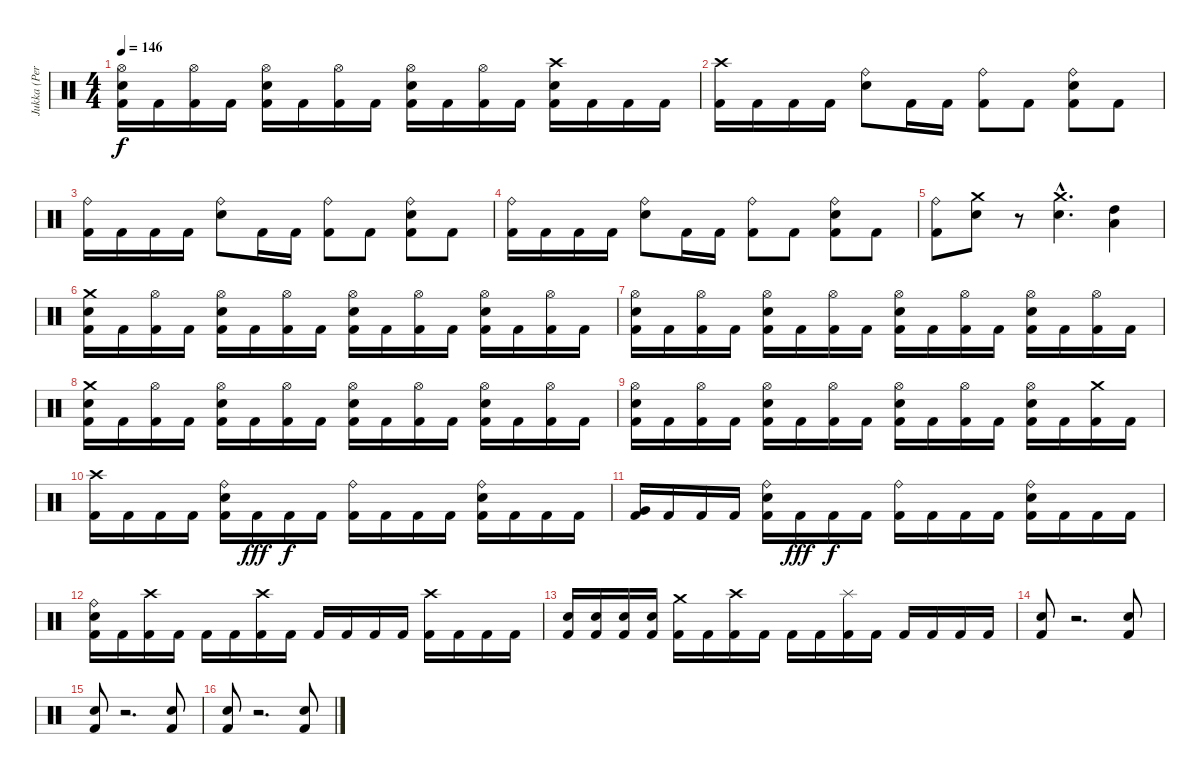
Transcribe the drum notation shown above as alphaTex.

\track ("Jukka (Percussion)" "Jukka (Per") {instrument percussion}
\staff {score}
\articulation defaults
\ts (4 4)
\tempo 146
\clef neutral
\ks c
("Hi-Hat (open)" "Snare (hit) 2" "Kick (hit) 2").16{dy f} "Kick (hit) 2".16 ("Hi-Hat (open)" "Kick (hit) 2").16 "Kick (hit) 2".16 ("Hi-Hat (open)" "Snare (hit) 2" "Kick (hit) 2").16 "Kick (hit) 2".16 ("Hi-Hat (open)" "Kick (hit) 2").16 "Kick (hit) 2".16 ("Hi-Hat (open)" "Snare (hit) 2" "Kick (hit) 2").16 "Kick (hit) 2".16 ("Hi-Hat (open)" "Kick (hit) 2").16 "Kick (hit) 2".16 ("Crash high (hit)" "Snare (hit) 2" "Kick (hit) 2").16 "Kick (hit) 2".16 "Kick (hit) 2".16 "Kick (hit) 2".16 |
("Crash high (hit)" "Kick (hit) 2").16 "Kick (hit) 2".16 "Kick (hit) 2".16 "Kick (hit) 2".16 ("Ride (bell)" "Snare (hit) 2").8 "Kick (hit) 2".16 "Kick (hit) 2".16 ("Ride (bell)" "Kick (hit) 2").8 "Kick (hit) 2".8 ("Ride (bell)" "Snare (hit) 2" "Kick (hit) 2").8 "Kick (hit) 2".8 |
("Ride (bell)" "Kick (hit) 2").16 "Kick (hit) 2".16 "Kick (hit) 2".16 "Kick (hit) 2".16 ("Ride (bell)" "Snare (hit) 2").8 "Kick (hit) 2".16 "Kick (hit) 2".16 ("Ride (bell)" "Kick (hit) 2").8 "Kick (hit) 2".8 ("Ride (bell)" "Snare (hit) 2" "Kick (hit) 2").8 "Kick (hit) 2".8 |
("Ride (bell)" "Kick (hit) 2").16 "Kick (hit) 2".16 "Kick (hit) 2".16 "Kick (hit) 2".16 ("Ride (bell)" "Snare (hit) 2").8 "Kick (hit) 2".16 "Kick (hit) 2".16 ("Ride (bell)" "Kick (hit) 2").8 "Kick (hit) 2".8 ("Ride (bell)" "Snare (hit) 2" "Kick (hit) 2").8 "Kick (hit) 2".8 |
("Ride (bell)" "Kick (hit) 2").8 ("Crash medium (hit)" "Snare (hit) 2").8 r.8 ("Crash medium (hit)"{hac} "Snare (hit) 2"{hac}).4{d} ("High Tom (hit)" "Low Tom (hit)").4 |
("Crash medium (hit)" "Snare (hit) 2" "Kick (hit) 2").16 "Kick (hit) 2".16 ("Hi-Hat (open)" "Kick (hit) 2").16 "Kick (hit) 2".16 ("Hi-Hat (open)" "Snare (hit) 2" "Kick (hit) 2").16 "Kick (hit) 2".16 ("Hi-Hat (open)" "Kick (hit) 2").16 "Kick (hit) 2".16 ("Hi-Hat (open)" "Snare (hit) 2" "Kick (hit) 2").16 "Kick (hit) 2".16 ("Hi-Hat (open)" "Kick (hit) 2").16 "Kick (hit) 2".16 ("Hi-Hat (open)" "Snare (hit) 2" "Kick (hit) 2").16 "Kick (hit) 2".16 ("Hi-Hat (open)" "Kick (hit) 2").16 "Kick (hit) 2".16 |
("Hi-Hat (open)" "Snare (hit) 2" "Kick (hit) 2").16 "Kick (hit) 2".16 ("Hi-Hat (open)" "Kick (hit) 2").16 "Kick (hit) 2".16 ("Hi-Hat (open)" "Snare (hit) 2" "Kick (hit) 2").16 "Kick (hit) 2".16 ("Hi-Hat (open)" "Kick (hit) 2").16 "Kick (hit) 2".16 ("Hi-Hat (open)" "Snare (hit) 2" "Kick (hit) 2").16 "Kick (hit) 2".16 ("Hi-Hat (open)" "Kick (hit) 2").16 "Kick (hit) 2".16 ("Hi-Hat (open)" "Snare (hit) 2" "Kick (hit) 2").16 "Kick (hit) 2".16 ("Hi-Hat (open)" "Kick (hit) 2").16 "Kick (hit) 2".16 |
("Crash medium (hit)" "Snare (hit) 2" "Kick (hit) 2").16 "Kick (hit) 2".16 ("Hi-Hat (open)" "Kick (hit) 2").16 "Kick (hit) 2".16 ("Hi-Hat (open)" "Snare (hit) 2" "Kick (hit) 2").16 "Kick (hit) 2".16 ("Hi-Hat (open)" "Kick (hit) 2").16 "Kick (hit) 2".16 ("Hi-Hat (open)" "Snare (hit) 2" "Kick (hit) 2").16 "Kick (hit) 2".16 ("Hi-Hat (open)" "Kick (hit) 2").16 "Kick (hit) 2".16 ("Hi-Hat (open)" "Snare (hit) 2" "Kick (hit) 2").16 "Kick (hit) 2".16 ("Hi-Hat (open)" "Kick (hit) 2").16 "Kick (hit) 2".16 |
("Hi-Hat (open)" "Snare (hit) 2" "Kick (hit) 2").16 "Kick (hit) 2".16 ("Hi-Hat (open)" "Kick (hit) 2").16 "Kick (hit) 2".16 ("Hi-Hat (open)" "Snare (hit) 2" "Kick (hit) 2").16 "Kick (hit) 2".16 ("Hi-Hat (open)" "Kick (hit) 2").16 "Kick (hit) 2".16 ("Hi-Hat (open)" "Snare (hit) 2" "Kick (hit) 2").16 "Kick (hit) 2".16 ("Hi-Hat (open)" "Kick (hit) 2").16 "Kick (hit) 2".16 ("Hi-Hat (open)" "Snare (hit) 2" "Kick (hit) 2").16 "Kick (hit) 2".16 ("Crash medium (hit)" "Kick (hit) 2").16 "Kick (hit) 2".16 |
("Crash high (hit)" "Kick (hit) 2").16 "Kick (hit) 2".16 "Kick (hit) 2".16 "Kick (hit) 2".16 ("Ride (bell)" "Snare (hit) 2" "Kick (hit) 2").16 "Kick (hit) 2".16{dy fff} "Kick (hit) 2".16{dy f} "Kick (hit) 2".16 ("Ride (bell)" "Kick (hit) 2").16 "Kick (hit) 2".16 "Kick (hit) 2".16 "Kick (hit) 2".16 ("Ride (bell)" "Snare (hit) 2" "Kick (hit) 2").16 "Kick (hit) 2".16 "Kick (hit) 2".16 "Kick (hit) 2".16 |
("Very Low Tom (hit)" "Kick (hit) 2").16 "Kick (hit) 2".16 "Kick (hit) 2".16 "Kick (hit) 2".16 ("Ride (bell)" "Snare (hit) 2" "Kick (hit) 2").16 "Kick (hit) 2".16{dy fff} "Kick (hit) 2".16{dy f} "Kick (hit) 2".16 ("Ride (bell)" "Kick (hit) 2").16 "Kick (hit) 2".16 "Kick (hit) 2".16 "Kick (hit) 2".16 ("Ride (bell)" "Snare (hit) 2" "Kick (hit) 2").16 "Kick (hit) 2".16 "Kick (hit) 2".16 "Kick (hit) 2".16 |
("Ride (bell)" "Snare (hit) 2" "Kick (hit) 2").16 "Kick (hit) 2".16 ("Crash high (hit)" "Kick (hit) 2").16 "Kick (hit) 2".16 "Kick (hit) 2".16 "Kick (hit) 2".16 ("Crash high (hit)" "Kick (hit) 2").16 "Kick (hit) 2".16 "Kick (hit) 2".16 "Kick (hit) 2".16 "Kick (hit) 2".16 "Kick (hit) 2".16 ("Crash high (hit)" "Kick (hit) 2").16 "Kick (hit) 2".16 "Kick (hit) 2".16 "Kick (hit) 2".16 |
("Snare (hit) 2" "Kick (hit) 2").16 ("Snare (hit) 2" "Kick (hit) 2").16 ("Snare (hit) 2" "Kick (hit) 2").16 ("Snare (hit) 2" "Kick (hit) 2").16 ("Crash medium (hit)" "Kick (hit) 2").16 "Kick (hit) 2".16 ("Crash high (hit)" "Kick (hit) 2").16 "Kick (hit) 2".16 "Kick (hit) 2".16 "Kick (hit) 2".16 ("Splash (hit)" "Kick (hit) 2").16 "Kick (hit) 2".16 "Kick (hit) 2".16 "Kick (hit) 2".16 "Kick (hit) 2".16 "Kick (hit) 2".16 |
("Snare (hit) 2" "Kick (hit) 2").8 r.2{d} ("Snare (hit) 2" "Kick (hit) 2").8 |
("Snare (hit) 2" "Kick (hit) 2").8 r.2{d} ("Snare (hit) 2" "Kick (hit) 2").8 |
("Snare (hit) 2" "Kick (hit) 2").8 r.2{d} ("Snare (hit) 2" "Kick (hit) 2").8
